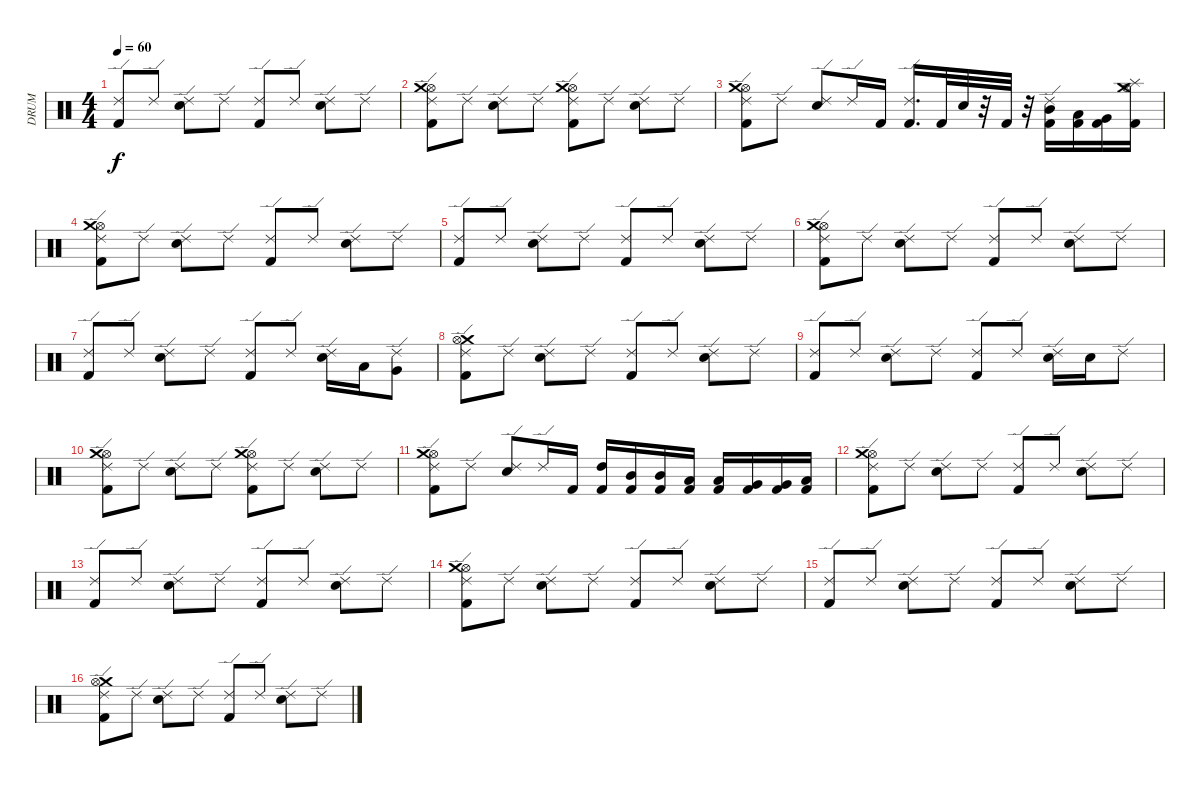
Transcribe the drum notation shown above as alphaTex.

\track (" DRUM" " DRUM") {instrument percussion}
\staff {score}
\articulation defaults
\ts (4 4)
\tempo 60
\clef neutral
\ks c
("Kick (hit) 2" "Ride (edge) 2").8{dy f} "Ride (edge) 2".8 ("Electric Snare (hit)" "Ride (edge) 2").8 "Ride (edge) 2".8 ("Kick (hit) 2" "Ride (edge) 2").8 "Ride (edge) 2".8 ("Electric Snare (hit)" "Ride (edge) 2").8 "Ride (edge) 2".8 |
("Hi-Hat (open)" "Crash medium (hit)" "Kick (hit) 2" "Ride (edge) 2").8 "Ride (edge) 2".8 ("Electric Snare (hit)" "Ride (edge) 2").8 "Ride (edge) 2".8 ("Hi-Hat (open)" "Crash medium (hit)" "Kick (hit) 2" "Ride (edge) 2").8 "Ride (edge) 2".8 ("Electric Snare (hit)" "Ride (edge) 2").8 "Ride (edge) 2".8 |
("Hi-Hat (open)" "Crash medium (hit)" "Kick (hit) 2" "Ride (edge) 2").8 "Ride (edge) 2".8 ("Electric Snare (hit)" "Ride (edge) 2").8 "Ride (edge) 2".16 "Kick (hit) 2".16 ("Ride (edge) 2" "Kick (hit) 2").16{d} "Kick (hit) 2".32 "Electric Snare (hit)".32 r.32 "Kick (hit) 2".32 r.32 ("Ride (edge) 2" "Kick (hit) 2" "Mid Tom (hit)").16 ("Kick (hit) 2" "Low Tom (hit)").16 ("Kick (hit) 2" "Very Low Tom (hit)").16 ("Splash (hit)" "Crash medium (hit)" "Hi-Hat (open)" "Kick (hit) 2").16 |
("Hi-Hat (open)" "Crash medium (hit)" "Kick (hit) 2" "Ride (edge) 2").8 "Ride (edge) 2".8 ("Electric Snare (hit)" "Ride (edge) 2").8 "Ride (edge) 2".8 ("Kick (hit) 2" "Ride (edge) 2").8 "Ride (edge) 2".8 ("Electric Snare (hit)" "Ride (edge) 2").8 "Ride (edge) 2".8 |
("Kick (hit) 2" "Ride (edge) 2").8 "Ride (edge) 2".8 ("Electric Snare (hit)" "Ride (edge) 2").8 "Ride (edge) 2".8 ("Kick (hit) 2" "Ride (edge) 2").8 "Ride (edge) 2".8 ("Electric Snare (hit)" "Ride (edge) 2").8 "Ride (edge) 2".8 |
("Hi-Hat (open)" "Crash medium (hit)" "Kick (hit) 2" "Ride (edge) 2").8 "Ride (edge) 2".8 ("Electric Snare (hit)" "Ride (edge) 2").8 "Ride (edge) 2".8 ("Kick (hit) 2" "Ride (edge) 2").8 "Ride (edge) 2".8 ("Electric Snare (hit)" "Ride (edge) 2").8 "Ride (edge) 2".8 |
("Kick (hit) 2" "Ride (edge) 2").8 "Ride (edge) 2".8 ("Electric Snare (hit)" "Ride (edge) 2").8 "Ride (edge) 2".8 ("Kick (hit) 2" "Ride (edge) 2").8 "Ride (edge) 2".8 ("Electric Snare (hit)" "Ride (edge) 2").16 "Low Tom (hit)".16 ("Very Low Tom (hit)" "Ride (edge) 2").8 |
("Crash medium (hit)" "Hi-Hat (open)" "Kick (hit) 2" "Ride (edge) 2").8 "Ride (edge) 2".8 ("Electric Snare (hit)" "Ride (edge) 2").8 "Ride (edge) 2".8 ("Kick (hit) 2" "Ride (edge) 2").8 "Ride (edge) 2".8 ("Electric Snare (hit)" "Ride (edge) 2").8 "Ride (edge) 2".8 |
("Kick (hit) 2" "Ride (edge) 2").8 "Ride (edge) 2".8 ("Electric Snare (hit)" "Ride (edge) 2").8 "Ride (edge) 2".8 ("Kick (hit) 2" "Ride (edge) 2").8 "Ride (edge) 2".8 ("Electric Snare (hit)" "Ride (edge) 2").16 "Electric Snare (hit)".16 "Ride (edge) 2".8 |
("Hi-Hat (open)" "Crash medium (hit)" "Kick (hit) 2" "Ride (edge) 2").8 "Ride (edge) 2".8 ("Electric Snare (hit)" "Ride (edge) 2").8 "Ride (edge) 2".8 ("Hi-Hat (open)" "Crash medium (hit)" "Kick (hit) 2" "Ride (edge) 2").8 "Ride (edge) 2".8 ("Electric Snare (hit)" "Ride (edge) 2").8 "Ride (edge) 2".8 |
("Hi-Hat (open)" "Crash medium (hit)" "Kick (hit) 2" "Ride (edge) 2").8 "Ride (edge) 2".8 ("Electric Snare (hit)" "Ride (edge) 2").8 "Ride (edge) 2".16 "Kick (hit) 2".16 ("High Tom (hit)" "Kick (hit) 2").16 ("Mid Tom (hit)" "Kick (hit) 2").16 ("Mid Tom (hit)" "Kick (hit) 2").16 ("Low Tom (hit)" "Kick (hit) 2").16 ("Low Tom (hit)" "Kick (hit) 2").16 ("Very Low Tom (hit)" "Kick (hit) 2").16 ("Very Low Tom (hit)" "Kick (hit) 2").16 ("Low Floor Tom (hit)" "Kick (hit) 2").16 |
("Hi-Hat (open)" "Crash medium (hit)" "Kick (hit) 2" "Ride (edge) 2").8 "Ride (edge) 2".8 ("Electric Snare (hit)" "Ride (edge) 2").8 "Ride (edge) 2".8 ("Kick (hit) 2" "Ride (edge) 2").8 "Ride (edge) 2".8 ("Electric Snare (hit)" "Ride (edge) 2").8 "Ride (edge) 2".8 |
("Kick (hit) 2" "Ride (edge) 2").8 "Ride (edge) 2".8 ("Electric Snare (hit)" "Ride (edge) 2").8 "Ride (edge) 2".8 ("Kick (hit) 2" "Ride (edge) 2").8 "Ride (edge) 2".8 ("Electric Snare (hit)" "Ride (edge) 2").8 "Ride (edge) 2".8 |
("Hi-Hat (open)" "Crash medium (hit)" "Kick (hit) 2" "Ride (edge) 2").8 "Ride (edge) 2".8 ("Electric Snare (hit)" "Ride (edge) 2").8 "Ride (edge) 2".8 ("Kick (hit) 2" "Ride (edge) 2").8 "Ride (edge) 2".8 ("Electric Snare (hit)" "Ride (edge) 2").8 "Ride (edge) 2".8 |
("Kick (hit) 2" "Ride (edge) 2").8 "Ride (edge) 2".8 ("Electric Snare (hit)" "Ride (edge) 2").8 "Ride (edge) 2".8 ("Kick (hit) 2" "Ride (edge) 2").8 "Ride (edge) 2".8 ("Electric Snare (hit)" "Ride (edge) 2").8 "Ride (edge) 2".8 |
("Crash medium (hit)" "Hi-Hat (open)" "Kick (hit) 2" "Ride (edge) 2").8 "Ride (edge) 2".8 ("Electric Snare (hit)" "Ride (edge) 2").8 "Ride (edge) 2".8 ("Kick (hit) 2" "Ride (edge) 2").8 "Ride (edge) 2".8 ("Electric Snare (hit)" "Ride (edge) 2").8 "Ride (edge) 2".8
